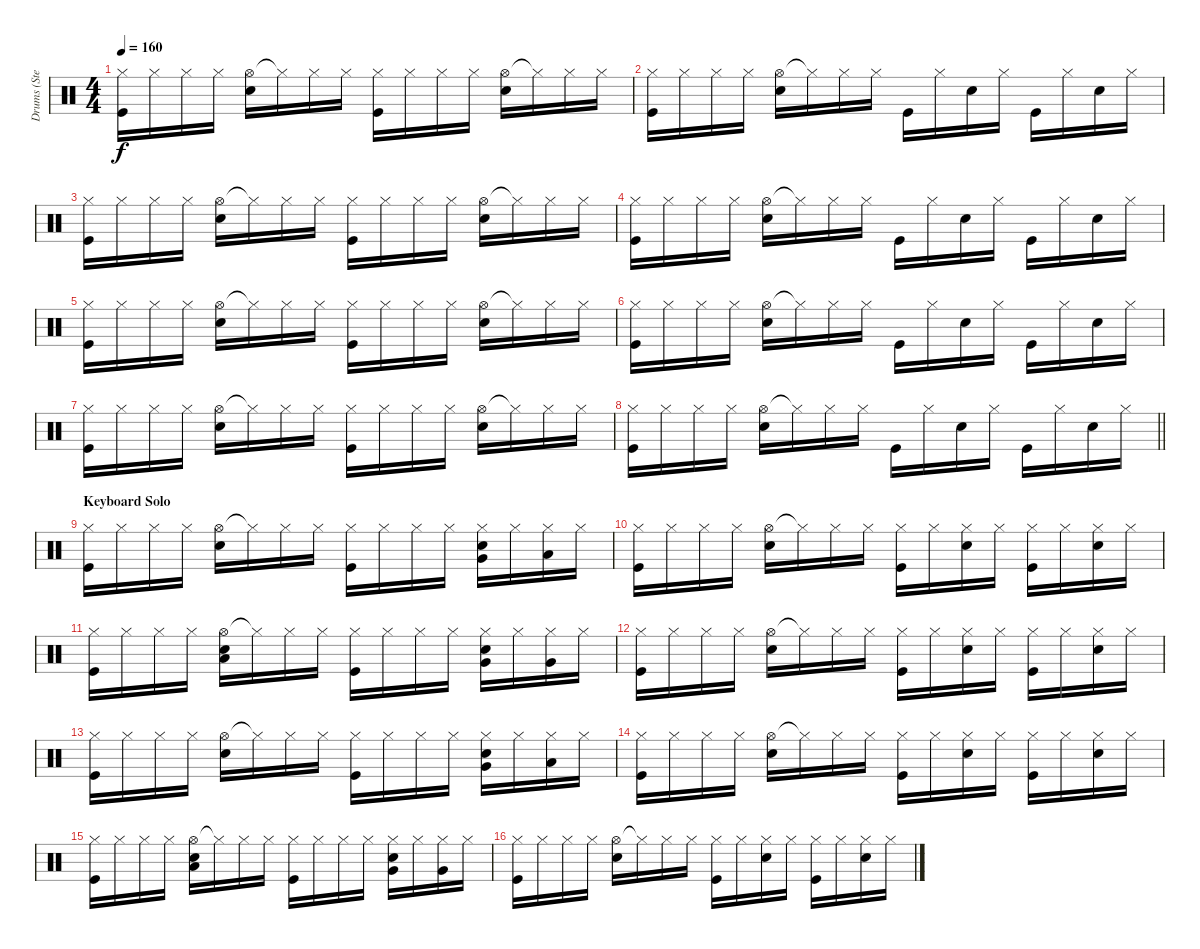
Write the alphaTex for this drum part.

\track ("Drums (Stephen Morris)" "Drums (Ste") {instrument percussion}
\staff {score}
\articulation defaults
\ts (4 4)
\tempo 160
\clef neutral
\ks c
("Hi-Hat (closed)" "Kick (hit)").16{dy f} "Hi-Hat (closed)".16 "Hi-Hat (closed)".16 "Hi-Hat (closed)".16 ("Hi-Hat (open)" "Electric Snare (hit)").16 "Hi-Hat (closed)"{t}.16 "Hi-Hat (closed)".16 "Hi-Hat (closed)".16 ("Hi-Hat (closed)" "Kick (hit)").16 "Hi-Hat (closed)".16 "Hi-Hat (closed)".16 "Hi-Hat (closed)".16 ("Hi-Hat (open)" "Electric Snare (hit)").16 "Hi-Hat (closed)"{t}.16 "Hi-Hat (closed)".16 "Hi-Hat (closed)".16 |
("Hi-Hat (closed)" "Kick (hit)").16 "Hi-Hat (closed)".16 "Hi-Hat (closed)".16 "Hi-Hat (closed)".16 ("Hi-Hat (open)" "Electric Snare (hit)").16 "Hi-Hat (closed)"{t}.16 "Hi-Hat (closed)".16 "Hi-Hat (closed)".16 "Kick (hit)".16 "Hi-Hat (closed)".16 "Electric Snare (hit)".16 "Hi-Hat (closed)".16 "Kick (hit)".16 "Hi-Hat (closed)".16 "Electric Snare (hit)".16 "Hi-Hat (closed)".16 |
("Hi-Hat (closed)" "Kick (hit)").16 "Hi-Hat (closed)".16 "Hi-Hat (closed)".16 "Hi-Hat (closed)".16 ("Hi-Hat (open)" "Electric Snare (hit)").16 "Hi-Hat (closed)"{t}.16 "Hi-Hat (closed)".16 "Hi-Hat (closed)".16 ("Hi-Hat (closed)" "Kick (hit)").16 "Hi-Hat (closed)".16 "Hi-Hat (closed)".16 "Hi-Hat (closed)".16 ("Hi-Hat (open)" "Electric Snare (hit)").16 "Hi-Hat (closed)"{t}.16 "Hi-Hat (closed)".16 "Hi-Hat (closed)".16 |
("Hi-Hat (closed)" "Kick (hit)").16 "Hi-Hat (closed)".16 "Hi-Hat (closed)".16 "Hi-Hat (closed)".16 ("Hi-Hat (open)" "Electric Snare (hit)").16 "Hi-Hat (closed)"{t}.16 "Hi-Hat (closed)".16 "Hi-Hat (closed)".16 "Kick (hit)".16 "Hi-Hat (closed)".16 "Electric Snare (hit)".16 "Hi-Hat (closed)".16 "Kick (hit)".16 "Hi-Hat (closed)".16 "Electric Snare (hit)".16 "Hi-Hat (closed)".16 |
("Hi-Hat (closed)" "Kick (hit)").16 "Hi-Hat (closed)".16 "Hi-Hat (closed)".16 "Hi-Hat (closed)".16 ("Hi-Hat (open)" "Electric Snare (hit)").16 "Hi-Hat (closed)"{t}.16 "Hi-Hat (closed)".16 "Hi-Hat (closed)".16 ("Hi-Hat (closed)" "Kick (hit)").16 "Hi-Hat (closed)".16 "Hi-Hat (closed)".16 "Hi-Hat (closed)".16 ("Hi-Hat (open)" "Electric Snare (hit)").16 "Hi-Hat (closed)"{t}.16 "Hi-Hat (closed)".16 "Hi-Hat (closed)".16 |
("Hi-Hat (closed)" "Kick (hit)").16 "Hi-Hat (closed)".16 "Hi-Hat (closed)".16 "Hi-Hat (closed)".16 ("Hi-Hat (open)" "Electric Snare (hit)").16 "Hi-Hat (closed)"{t}.16 "Hi-Hat (closed)".16 "Hi-Hat (closed)".16 "Kick (hit)".16 "Hi-Hat (closed)".16 "Electric Snare (hit)".16 "Hi-Hat (closed)".16 "Kick (hit)".16 "Hi-Hat (closed)".16 "Electric Snare (hit)".16 "Hi-Hat (closed)".16 |
("Hi-Hat (closed)" "Kick (hit)").16 "Hi-Hat (closed)".16 "Hi-Hat (closed)".16 "Hi-Hat (closed)".16 ("Hi-Hat (open)" "Electric Snare (hit)").16 "Hi-Hat (closed)"{t}.16 "Hi-Hat (closed)".16 "Hi-Hat (closed)".16 ("Hi-Hat (closed)" "Kick (hit)").16 "Hi-Hat (closed)".16 "Hi-Hat (closed)".16 "Hi-Hat (closed)".16 ("Hi-Hat (open)" "Electric Snare (hit)").16 "Hi-Hat (closed)"{t}.16 "Hi-Hat (closed)".16 "Hi-Hat (closed)".16 |
\barLineRight lightlight
("Hi-Hat (closed)" "Kick (hit)").16 "Hi-Hat (closed)".16 "Hi-Hat (closed)".16 "Hi-Hat (closed)".16 ("Hi-Hat (open)" "Electric Snare (hit)").16 "Hi-Hat (closed)"{t}.16 "Hi-Hat (closed)".16 "Hi-Hat (closed)".16 "Kick (hit)".16 "Hi-Hat (closed)".16 "Electric Snare (hit)".16 "Hi-Hat (closed)".16 "Kick (hit)".16 "Hi-Hat (closed)".16 "Electric Snare (hit)".16 "Hi-Hat (closed)".16 |
\section ("" "Keyboard Solo")
("Hi-Hat (closed)" "Kick (hit)").16 "Hi-Hat (closed)".16 "Hi-Hat (closed)".16 "Hi-Hat (closed)".16 ("Hi-Hat (open)" "Electric Snare (hit)").16 "Hi-Hat (closed)"{t}.16 "Hi-Hat (closed)".16 "Hi-Hat (closed)".16 ("Hi-Hat (closed)" "Kick (hit)").16 "Hi-Hat (closed)".16 "Hi-Hat (closed)".16 "Hi-Hat (closed)".16 ("Hi-Hat (closed)" "Very Low Tom (hit)" "Electric Snare (hit)").16 "Hi-Hat (closed)".16 ("Hi-Hat (closed)" "Low Tom (hit)").16 "Hi-Hat (closed)".16 |
("Hi-Hat (closed)" "Kick (hit)").16 "Hi-Hat (closed)".16 "Hi-Hat (closed)".16 "Hi-Hat (closed)".16 ("Hi-Hat (open)" "Electric Snare (hit)").16 "Hi-Hat (closed)"{t}.16 "Hi-Hat (closed)".16 "Hi-Hat (closed)".16 ("Hi-Hat (closed)" "Kick (hit)").16 "Hi-Hat (closed)".16 ("Hi-Hat (closed)" "Electric Snare (hit)").16 "Hi-Hat (closed)".16 ("Hi-Hat (closed)" "Kick (hit)").16 "Hi-Hat (closed)".16 ("Hi-Hat (closed)" "Electric Snare (hit)").16 "Hi-Hat (closed)".16 |
("Hi-Hat (closed)" "Kick (hit)").16 "Hi-Hat (closed)".16 "Hi-Hat (closed)".16 "Hi-Hat (closed)".16 ("Hi-Hat (open)" "Low Tom (hit)" "Electric Snare (hit)").16 "Hi-Hat (closed)"{t}.16 "Hi-Hat (closed)".16 "Hi-Hat (closed)".16 ("Hi-Hat (closed)" "Kick (hit)").16 "Hi-Hat (closed)".16 "Hi-Hat (closed)".16 "Hi-Hat (closed)".16 ("Hi-Hat (closed)" "Very Low Tom (hit)" "Electric Snare (hit)").16 "Hi-Hat (closed)".16 ("Hi-Hat (closed)" "Very Low Tom (hit)").16 "Hi-Hat (closed)".16 |
("Hi-Hat (closed)" "Kick (hit)").16 "Hi-Hat (closed)".16 "Hi-Hat (closed)".16 "Hi-Hat (closed)".16 ("Hi-Hat (open)" "Electric Snare (hit)").16 "Hi-Hat (closed)"{t}.16 "Hi-Hat (closed)".16 "Hi-Hat (closed)".16 ("Hi-Hat (closed)" "Kick (hit)").16 "Hi-Hat (closed)".16 ("Hi-Hat (closed)" "Electric Snare (hit)").16 "Hi-Hat (closed)".16 ("Hi-Hat (closed)" "Kick (hit)").16 "Hi-Hat (closed)".16 ("Hi-Hat (closed)" "Electric Snare (hit)").16 "Hi-Hat (closed)".16 |
("Hi-Hat (closed)" "Kick (hit)").16 "Hi-Hat (closed)".16 "Hi-Hat (closed)".16 "Hi-Hat (closed)".16 ("Hi-Hat (open)" "Electric Snare (hit)").16 "Hi-Hat (closed)"{t}.16 "Hi-Hat (closed)".16 "Hi-Hat (closed)".16 ("Hi-Hat (closed)" "Kick (hit)").16 "Hi-Hat (closed)".16 "Hi-Hat (closed)".16 "Hi-Hat (closed)".16 ("Hi-Hat (closed)" "Very Low Tom (hit)" "Electric Snare (hit)").16 "Hi-Hat (closed)".16 ("Hi-Hat (closed)" "Low Tom (hit)").16 "Hi-Hat (closed)".16 |
("Hi-Hat (closed)" "Kick (hit)").16 "Hi-Hat (closed)".16 "Hi-Hat (closed)".16 "Hi-Hat (closed)".16 ("Hi-Hat (open)" "Electric Snare (hit)").16 "Hi-Hat (closed)"{t}.16 "Hi-Hat (closed)".16 "Hi-Hat (closed)".16 ("Hi-Hat (closed)" "Kick (hit)").16 "Hi-Hat (closed)".16 ("Hi-Hat (closed)" "Electric Snare (hit)").16 "Hi-Hat (closed)".16 ("Hi-Hat (closed)" "Kick (hit)").16 "Hi-Hat (closed)".16 ("Hi-Hat (closed)" "Electric Snare (hit)").16 "Hi-Hat (closed)".16 |
("Hi-Hat (closed)" "Kick (hit)").16 "Hi-Hat (closed)".16 "Hi-Hat (closed)".16 "Hi-Hat (closed)".16 ("Hi-Hat (open)" "Low Tom (hit)" "Electric Snare (hit)").16 "Hi-Hat (closed)"{t}.16 "Hi-Hat (closed)".16 "Hi-Hat (closed)".16 ("Hi-Hat (closed)" "Kick (hit)").16 "Hi-Hat (closed)".16 "Hi-Hat (closed)".16 "Hi-Hat (closed)".16 ("Hi-Hat (closed)" "Very Low Tom (hit)" "Electric Snare (hit)").16 "Hi-Hat (closed)".16 ("Hi-Hat (closed)" "Very Low Tom (hit)").16 "Hi-Hat (closed)".16 |
("Hi-Hat (closed)" "Kick (hit)").16 "Hi-Hat (closed)".16 "Hi-Hat (closed)".16 "Hi-Hat (closed)".16 ("Hi-Hat (open)" "Electric Snare (hit)").16 "Hi-Hat (closed)"{t}.16 "Hi-Hat (closed)".16 "Hi-Hat (closed)".16 ("Hi-Hat (closed)" "Kick (hit)").16 "Hi-Hat (closed)".16 ("Hi-Hat (closed)" "Electric Snare (hit)").16 "Hi-Hat (closed)".16 ("Hi-Hat (closed)" "Kick (hit)").16 "Hi-Hat (closed)".16 ("Hi-Hat (closed)" "Electric Snare (hit)").16 "Hi-Hat (closed)".16
